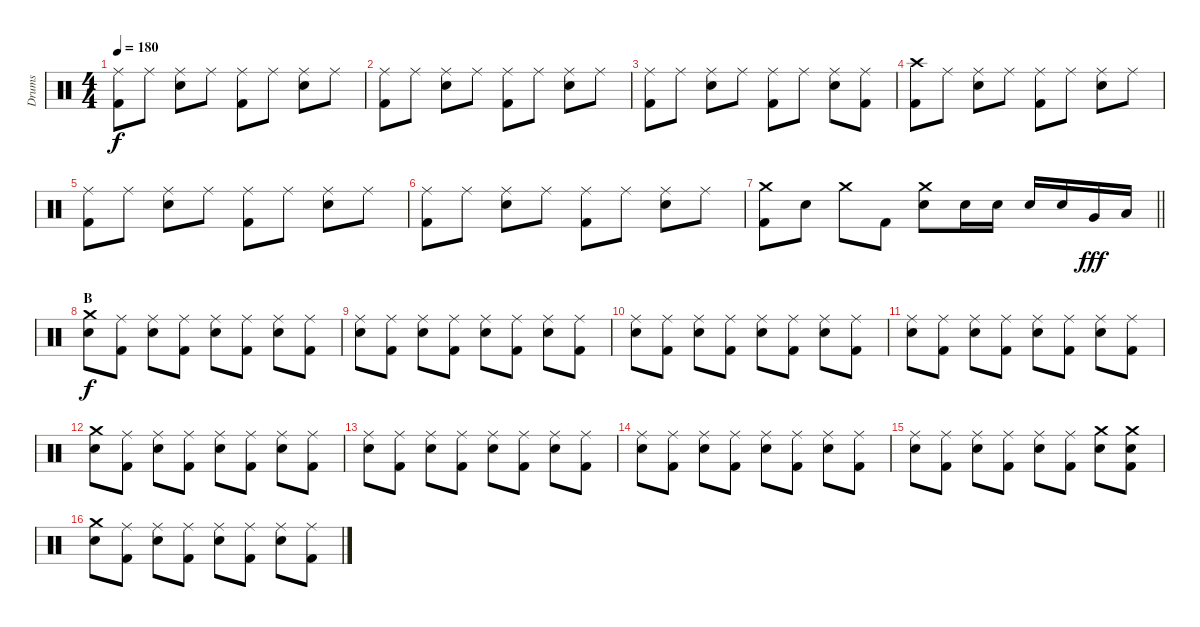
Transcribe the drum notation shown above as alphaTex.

\track ("Drums" "Drums") {instrument percussion}
\staff {score}
\articulation defaults
\ts (4 4)
\tempo 180
\clef neutral
\ks c
("Kick (hit) 2" "Ride (middle)").8{dy f} "Ride (middle)".8 ("Ride (middle)" "Snare (hit) 2").8 "Ride (middle)".8 ("Kick (hit) 2" "Ride (middle)").8 "Ride (middle)".8 ("Ride (middle)" "Snare (hit) 2").8 "Ride (middle)".8 |
("Kick (hit) 2" "Ride (middle)").8 "Ride (middle)".8 ("Ride (middle)" "Snare (hit) 2").8 "Ride (middle)".8 ("Kick (hit) 2" "Ride (middle)").8 "Ride (middle)".8 ("Ride (middle)" "Snare (hit) 2").8 "Ride (middle)".8 |
("Kick (hit) 2" "Ride (middle)").8 "Ride (middle)".8 ("Ride (middle)" "Snare (hit) 2").8 "Ride (middle)".8 ("Kick (hit) 2" "Ride (middle)").8 "Ride (middle)".8 ("Ride (middle)" "Snare (hit) 2").8 ("Kick (hit) 2" "Ride (middle)").8 |
("Kick (hit) 2" "Crash high (hit)").8 "Ride (middle)".8 ("Ride (middle)" "Snare (hit) 2").8 "Ride (middle)".8 ("Kick (hit) 2" "Ride (middle)").8 "Ride (middle)".8 ("Ride (middle)" "Snare (hit) 2").8 "Ride (middle)".8 |
("Kick (hit) 2" "Ride (middle)").8 "Ride (middle)".8 ("Ride (middle)" "Snare (hit) 2").8 "Ride (middle)".8 ("Kick (hit) 2" "Ride (middle)").8 "Ride (middle)".8 ("Ride (middle)" "Snare (hit) 2").8 "Ride (middle)".8 |
("Kick (hit) 2" "Ride (middle)").8 "Ride (middle)".8 ("Ride (middle)" "Snare (hit) 2").8 "Ride (middle)".8 ("Kick (hit) 2" "Ride (middle)").8 "Ride (middle)".8 ("Ride (middle)" "Snare (hit) 2").8 "Ride (middle)".8 |
\barLineRight lightlight
("Kick (hit) 2" "Crash medium (hit)").8 "Snare (hit) 2".8 "Crash medium (hit)".8 "Kick (hit) 2".8 ("Crash medium (hit)" "Snare (hit) 2").8 "Snare (hit) 2".16 "Snare (hit) 2".16 "Snare (hit) 2".16 "Snare (hit) 2".16 "Very Low Tom (hit)".16{dy fff} "Low Floor Tom (hit)".16 |
\section ("" "B")
("Crash medium (hit)" "Snare (hit) 2").8{dy f} ("Kick (hit) 2" "Ride (middle)").8 ("Ride (middle)" "Snare (hit) 2").8 ("Kick (hit) 2" "Ride (middle)").8 ("Ride (middle)" "Snare (hit) 2").8 ("Kick (hit) 2" "Ride (middle)").8 ("Ride (middle)" "Snare (hit) 2").8 ("Kick (hit) 2" "Ride (middle)").8 |
("Ride (middle)" "Snare (hit) 2").8 ("Kick (hit) 2" "Ride (middle)").8 ("Ride (middle)" "Snare (hit) 2").8 ("Kick (hit) 2" "Ride (middle)").8 ("Ride (middle)" "Snare (hit) 2").8 ("Kick (hit) 2" "Ride (middle)").8 ("Ride (middle)" "Snare (hit) 2").8 ("Kick (hit) 2" "Ride (middle)").8 |
("Ride (middle)" "Snare (hit) 2").8 ("Kick (hit) 2" "Ride (middle)").8 ("Ride (middle)" "Snare (hit) 2").8 ("Kick (hit) 2" "Ride (middle)").8 ("Ride (middle)" "Snare (hit) 2").8 ("Kick (hit) 2" "Ride (middle)").8 ("Ride (middle)" "Snare (hit) 2").8 ("Kick (hit) 2" "Ride (middle)").8 |
("Ride (middle)" "Snare (hit) 2").8 ("Kick (hit) 2" "Ride (middle)").8 ("Ride (middle)" "Snare (hit) 2").8 ("Kick (hit) 2" "Ride (middle)").8 ("Ride (middle)" "Snare (hit) 2").8 ("Kick (hit) 2" "Ride (middle)").8 ("Ride (middle)" "Snare (hit) 2").8 ("Kick (hit) 2" "Ride (middle)").8 |
("Crash medium (hit)" "Snare (hit) 2").8 ("Kick (hit) 2" "Ride (middle)").8 ("Ride (middle)" "Snare (hit) 2").8 ("Kick (hit) 2" "Ride (middle)").8 ("Ride (middle)" "Snare (hit) 2").8 ("Kick (hit) 2" "Ride (middle)").8 ("Ride (middle)" "Snare (hit) 2").8 ("Kick (hit) 2" "Ride (middle)").8 |
("Ride (middle)" "Snare (hit) 2").8 ("Kick (hit) 2" "Ride (middle)").8 ("Ride (middle)" "Snare (hit) 2").8 ("Kick (hit) 2" "Ride (middle)").8 ("Ride (middle)" "Snare (hit) 2").8 ("Kick (hit) 2" "Ride (middle)").8 ("Ride (middle)" "Snare (hit) 2").8 ("Kick (hit) 2" "Ride (middle)").8 |
("Ride (middle)" "Snare (hit) 2").8 ("Kick (hit) 2" "Ride (middle)").8 ("Ride (middle)" "Snare (hit) 2").8 ("Kick (hit) 2" "Ride (middle)").8 ("Ride (middle)" "Snare (hit) 2").8 ("Kick (hit) 2" "Ride (middle)").8 ("Ride (middle)" "Snare (hit) 2").8 ("Kick (hit) 2" "Ride (middle)").8 |
("Ride (middle)" "Snare (hit) 2").8 ("Kick (hit) 2" "Ride (middle)").8 ("Ride (middle)" "Snare (hit) 2").8 ("Kick (hit) 2" "Ride (middle)").8 ("Ride (middle)" "Snare (hit) 2").8 ("Kick (hit) 2" "Ride (middle)").8 ("Crash medium (hit)" "Snare (hit) 2").8 ("Kick (hit) 2" "Crash medium (hit)" "Snare (hit) 2").8 |
("Crash medium (hit)" "Snare (hit) 2").8 ("Kick (hit) 2" "Ride (middle)").8 ("Ride (middle)" "Snare (hit) 2").8 ("Kick (hit) 2" "Ride (middle)").8 ("Ride (middle)" "Snare (hit) 2").8 ("Kick (hit) 2" "Ride (middle)").8 ("Ride (middle)" "Snare (hit) 2").8 ("Kick (hit) 2" "Ride (middle)").8
